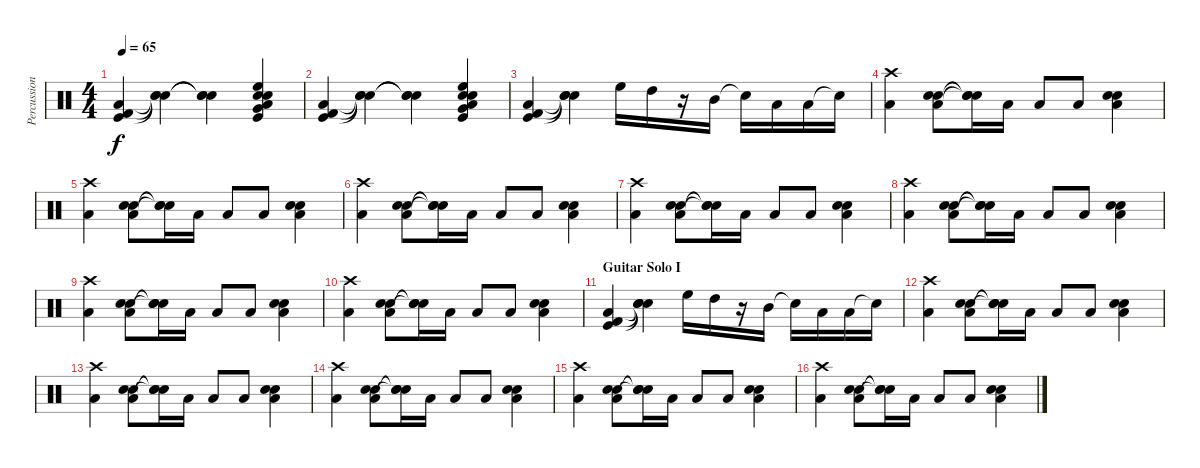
\track ("Percussion" "Percussion") {instrument percussion}
\staff {score}
\articulation defaults
\ts (4 4)
\tempo 65
\clef neutral
\ks c
("Low Floor Tom (hit)" "Kick (hit)" "Kick (hit) 2").4{dy f} ("Snare (hit)"{t} "Snare (hit)"{t} "Snare (hit)"{t}).4 ("Snare (hit)"{t} "Snare (hit)"{t} "Snare (hit)"{t}).4 ("Electric Snare (hit)" "Kick (hit)" "High Floor Tom (hit)" "Hand Clap (hit)" "Low Tom (hit)" "Very Low Tom (hit)").4 |
("Low Floor Tom (hit)" "Kick (hit)" "Kick (hit) 2").4 ("Snare (hit)"{t} "Snare (hit)"{t} "Snare (hit)"{t}).4 ("Snare (hit)"{t} "Snare (hit)"{t} "Snare (hit)"{t}).4 ("Electric Snare (hit)" "Kick (hit)" "High Floor Tom (hit)" "Hand Clap (hit)" "Low Tom (hit)" "Very Low Tom (hit)").4 |
("Low Floor Tom (hit)" "Kick (hit)" "Kick (hit) 2").4 ("Snare (hit)"{t} "Snare (hit)"{t} "Snare (hit)"{t}).4 "High Floor Tom (hit)".16 "High Tom (hit)".16 r.16 "Mid Tom (hit)".16 "Snare (hit)"{t}.16 "Low Tom (hit)".16 "Low Tom (hit)".16 "Snare (hit)"{t}.16 |
("Crash high (hit)" "Low Tom (hit)").4 ("Snare (hit) 2" "Electric Snare (hit)" "Low Tom (hit)").8 ("Snare (hit)"{t} "Snare (hit)"{t} "Snare (hit)"{t}).16 "Low Tom (hit)".16 "Low Tom (hit)".8 "Low Tom (hit)".8 ("Snare (hit) 2" "Electric Snare (hit)" "Low Tom (hit)").4 |
("Crash high (hit)" "Low Tom (hit)").4 ("Snare (hit) 2" "Electric Snare (hit)" "Low Tom (hit)").8 ("Snare (hit)"{t} "Snare (hit)"{t} "Snare (hit)"{t}).16 "Low Tom (hit)".16 "Low Tom (hit)".8 "Low Tom (hit)".8 ("Snare (hit) 2" "Electric Snare (hit)" "Low Tom (hit)").4 |
("Crash high (hit)" "Low Tom (hit)").4 ("Snare (hit) 2" "Electric Snare (hit)" "Low Tom (hit)").8 ("Snare (hit)"{t} "Snare (hit)"{t} "Snare (hit)"{t}).16 "Low Tom (hit)".16 "Low Tom (hit)".8 "Low Tom (hit)".8 ("Snare (hit) 2" "Electric Snare (hit)" "Low Tom (hit)").4 |
("Crash high (hit)" "Low Tom (hit)").4 ("Snare (hit) 2" "Electric Snare (hit)" "Low Tom (hit)").8 ("Snare (hit)"{t} "Snare (hit)"{t} "Snare (hit)"{t}).16 "Low Tom (hit)".16 "Low Tom (hit)".8 "Low Tom (hit)".8 ("Snare (hit) 2" "Electric Snare (hit)" "Low Tom (hit)").4 |
("Crash high (hit)" "Low Tom (hit)").4 ("Snare (hit) 2" "Electric Snare (hit)" "Low Tom (hit)").8 ("Snare (hit)"{t} "Snare (hit)"{t} "Snare (hit)"{t}).16 "Low Tom (hit)".16 "Low Tom (hit)".8 "Low Tom (hit)".8 ("Snare (hit) 2" "Electric Snare (hit)" "Low Tom (hit)").4 |
("Crash high (hit)" "Low Tom (hit)").4 ("Snare (hit) 2" "Electric Snare (hit)" "Low Tom (hit)").8 ("Snare (hit)"{t} "Snare (hit)"{t} "Snare (hit)"{t}).16 "Low Tom (hit)".16 "Low Tom (hit)".8 "Low Tom (hit)".8 ("Snare (hit) 2" "Electric Snare (hit)" "Low Tom (hit)").4 |
("Crash high (hit)" "Low Tom (hit)").4 ("Snare (hit) 2" "Electric Snare (hit)" "Low Tom (hit)").8 ("Snare (hit)"{t} "Snare (hit)"{t} "Snare (hit)"{t}).16 "Low Tom (hit)".16 "Low Tom (hit)".8 "Low Tom (hit)".8 ("Snare (hit) 2" "Electric Snare (hit)" "Low Tom (hit)").4 |
\section ("" "Guitar Solo I")
("Low Floor Tom (hit)" "Kick (hit)" "Kick (hit) 2").4 ("Snare (hit)"{t} "Snare (hit)"{t} "Snare (hit)"{t}).4 "High Floor Tom (hit)".16 "High Tom (hit)".16 r.16 "Mid Tom (hit)".16 "Snare (hit)"{t}.16 "Low Tom (hit)".16 "Low Tom (hit)".16 "Snare (hit)"{t}.16 |
("Crash high (hit)" "Low Tom (hit)").4 ("Snare (hit) 2" "Electric Snare (hit)" "Low Tom (hit)").8 ("Snare (hit)"{t} "Snare (hit)"{t} "Snare (hit)"{t}).16 "Low Tom (hit)".16 "Low Tom (hit)".8 "Low Tom (hit)".8 ("Snare (hit) 2" "Electric Snare (hit)" "Low Tom (hit)").4 |
("Crash high (hit)" "Low Tom (hit)").4 ("Snare (hit) 2" "Electric Snare (hit)" "Low Tom (hit)").8 ("Snare (hit)"{t} "Snare (hit)"{t} "Snare (hit)"{t}).16 "Low Tom (hit)".16 "Low Tom (hit)".8 "Low Tom (hit)".8 ("Snare (hit) 2" "Electric Snare (hit)" "Low Tom (hit)").4 |
("Crash high (hit)" "Low Tom (hit)").4 ("Snare (hit) 2" "Electric Snare (hit)" "Low Tom (hit)").8 ("Snare (hit)"{t} "Snare (hit)"{t} "Snare (hit)"{t}).16 "Low Tom (hit)".16 "Low Tom (hit)".8 "Low Tom (hit)".8 ("Snare (hit) 2" "Electric Snare (hit)" "Low Tom (hit)").4 |
("Crash high (hit)" "Low Tom (hit)").4 ("Snare (hit) 2" "Electric Snare (hit)" "Low Tom (hit)").8 ("Snare (hit)"{t} "Snare (hit)"{t} "Snare (hit)"{t}).16 "Low Tom (hit)".16 "Low Tom (hit)".8 "Low Tom (hit)".8 ("Snare (hit) 2" "Electric Snare (hit)" "Low Tom (hit)").4 |
("Crash high (hit)" "Low Tom (hit)").4 ("Snare (hit) 2" "Electric Snare (hit)" "Low Tom (hit)").8 ("Snare (hit)"{t} "Snare (hit)"{t} "Snare (hit)"{t}).16 "Low Tom (hit)".16 "Low Tom (hit)".8 "Low Tom (hit)".8 ("Snare (hit) 2" "Electric Snare (hit)" "Low Tom (hit)").4
